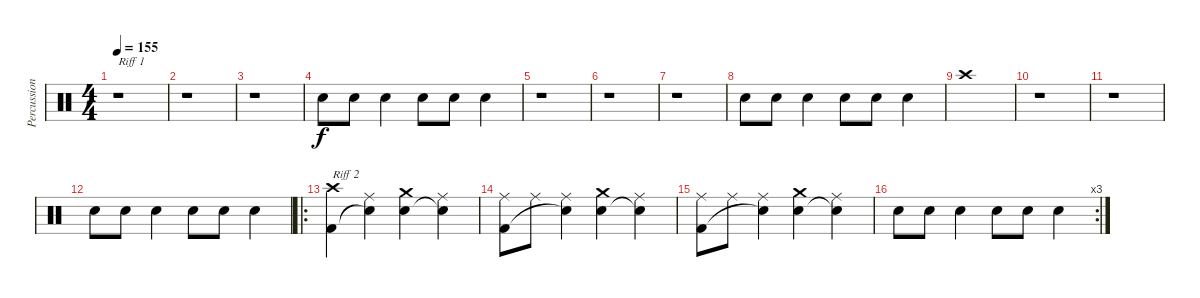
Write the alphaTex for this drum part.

\track ("Percussion" "Percussion") {instrument percussion}
\staff {score}
\articulation defaults
\ts (4 4)
\tempo 155
\clef neutral
\ks c
r.1{txt "Riff 1" dy f} |
r.1 |
r.1 |
"Electric Snare (hit)".8 "Electric Snare (hit)".8 "Electric Snare (hit)".4 "Electric Snare (hit)".8 "Electric Snare (hit)".8 "Electric Snare (hit)".4 |
r.1 |
r.1 |
r.1 |
"Electric Snare (hit)".8 "Electric Snare (hit)".8 "Electric Snare (hit)".4 "Electric Snare (hit)".8 "Electric Snare (hit)".8 "Electric Snare (hit)".4 |
"Crash high (hit)".1 |
r.1 |
r.1 |
"Electric Snare (hit)".8 "Electric Snare (hit)".8 "Electric Snare (hit)".4 "Electric Snare (hit)".8 "Electric Snare (hit)".8 "Electric Snare (hit)".4 |
\ro
("Crash high (hit)" "Kick (hit) 2").4{txt "Riff 2"} ("Ride (middle)" "Snare (hit)"{t}).4 ("Crash medium (hit)" "Electric Snare (hit)").4 ("Ride (middle)" "Snare (hit)"{t}).4 |
("Ride (middle)" "Kick (hit) 2").8 "Ride (middle)".8 ("Ride (middle)" "Snare (hit)"{t}).4 ("Crash medium (hit)" "Electric Snare (hit)").4 ("Ride (middle)" "Snare (hit)"{t}).4 |
("Ride (middle)" "Kick (hit) 2").8 "Ride (middle)".8 ("Ride (middle)" "Snare (hit)"{t}).4 ("Crash medium (hit)" "Electric Snare (hit)").4 ("Ride (middle)" "Snare (hit)"{t}).4 |
\rc 3 "Electric Snare (hit)".8 "Electric Snare (hit)".8 "Electric Snare (hit)".4 "Electric Snare (hit)".8 "Electric Snare (hit)".8 "Electric Snare (hit)".4
